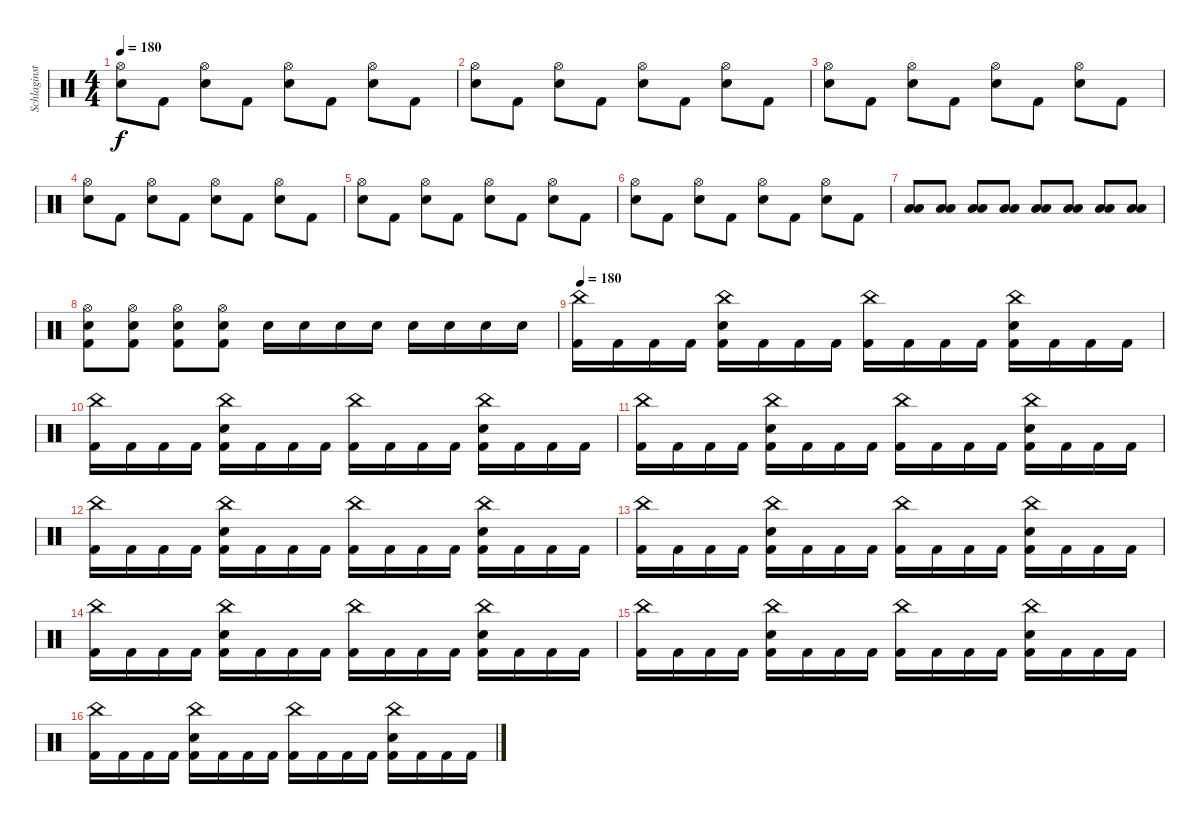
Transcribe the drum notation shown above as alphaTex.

\track ("Schlaginstrumente - Auswahl" "Schlaginst") {instrument percussion}
\staff {score}
\articulation defaults
\ts (4 4)
\tempo 180
\clef neutral
\ks c
("Hi-Hat (open)" "Snare (hit) 2").8{dy f} "Kick (hit) 2".8 ("Hi-Hat (open)" "Snare (hit) 2").8 "Kick (hit) 2".8 ("Hi-Hat (open)" "Snare (hit) 2").8 "Kick (hit) 2".8 ("Hi-Hat (open)" "Snare (hit) 2").8 "Kick (hit) 2".8 |
("Hi-Hat (open)" "Snare (hit) 2").8 "Kick (hit) 2".8 ("Hi-Hat (open)" "Snare (hit) 2").8 "Kick (hit) 2".8 ("Hi-Hat (open)" "Snare (hit) 2").8 "Kick (hit) 2".8 ("Hi-Hat (open)" "Snare (hit) 2").8 "Kick (hit) 2".8 |
("Hi-Hat (open)" "Snare (hit) 2").8 "Kick (hit) 2".8 ("Hi-Hat (open)" "Snare (hit) 2").8 "Kick (hit) 2".8 ("Hi-Hat (open)" "Snare (hit) 2").8 "Kick (hit) 2".8 ("Hi-Hat (open)" "Snare (hit) 2").8 "Kick (hit) 2".8 |
("Hi-Hat (open)" "Snare (hit) 2").8 "Kick (hit) 2".8 ("Hi-Hat (open)" "Snare (hit) 2").8 "Kick (hit) 2".8 ("Hi-Hat (open)" "Snare (hit) 2").8 "Kick (hit) 2".8 ("Hi-Hat (open)" "Snare (hit) 2").8 "Kick (hit) 2".8 |
("Hi-Hat (open)" "Snare (hit) 2").8 "Kick (hit) 2".8 ("Hi-Hat (open)" "Snare (hit) 2").8 "Kick (hit) 2".8 ("Hi-Hat (open)" "Snare (hit) 2").8 "Kick (hit) 2".8 ("Hi-Hat (open)" "Snare (hit) 2").8 "Kick (hit) 2".8 |
("Hi-Hat (open)" "Snare (hit) 2").8 "Kick (hit) 2".8 ("Hi-Hat (open)" "Snare (hit) 2").8 "Kick (hit) 2".8 ("Hi-Hat (open)" "Snare (hit) 2").8 "Kick (hit) 2".8 ("Hi-Hat (open)" "Snare (hit) 2").8 "Kick (hit) 2".8 |
("Low Tom (hit)" "Low Floor Tom (hit)").8 ("Low Tom (hit)" "Low Floor Tom (hit)").8 ("Low Tom (hit)" "Low Floor Tom (hit)").8 ("Low Tom (hit)" "Low Floor Tom (hit)").8 ("Low Tom (hit)" "Low Floor Tom (hit)").8 ("Low Tom (hit)" "Low Floor Tom (hit)").8 ("Low Tom (hit)" "Low Floor Tom (hit)").8 ("Low Tom (hit)" "Low Floor Tom (hit)").8 |
("Hi-Hat (open)" "Snare (hit) 2" "Kick (hit) 2").8 ("Hi-Hat (open)" "Snare (hit) 2" "Kick (hit) 2").8 ("Hi-Hat (open)" "Snare (hit) 2" "Kick (hit) 2").8 ("Hi-Hat (open)" "Snare (hit) 2" "Kick (hit) 2").8 "Snare (hit) 2".16 "Snare (hit) 2".16 "Snare (hit) 2".16 "Snare (hit) 2".16 "Snare (hit) 2".16 "Snare (hit) 2".16 "Snare (hit) 2".16 "Snare (hit) 2".16 |
\tempo 180
("China (hit)" "Kick (hit) 2").16 "Kick (hit) 2".16 "Kick (hit) 2".16 "Kick (hit) 2".16 ("China (hit)" "Snare (hit) 2" "Kick (hit) 2").16 "Kick (hit) 2".16 "Kick (hit) 2".16 "Kick (hit) 2".16 ("China (hit)" "Kick (hit) 2").16 "Kick (hit) 2".16 "Kick (hit) 2".16 "Kick (hit) 2".16 ("China (hit)" "Snare (hit) 2" "Kick (hit) 2").16 "Kick (hit) 2".16 "Kick (hit) 2".16 "Kick (hit) 2".16 |
("China (hit)" "Kick (hit) 2").16 "Kick (hit) 2".16 "Kick (hit) 2".16 "Kick (hit) 2".16 ("China (hit)" "Snare (hit) 2" "Kick (hit) 2").16 "Kick (hit) 2".16 "Kick (hit) 2".16 "Kick (hit) 2".16 ("China (hit)" "Kick (hit) 2").16 "Kick (hit) 2".16 "Kick (hit) 2".16 "Kick (hit) 2".16 ("China (hit)" "Snare (hit) 2" "Kick (hit) 2").16 "Kick (hit) 2".16 "Kick (hit) 2".16 "Kick (hit) 2".16 |
("China (hit)" "Kick (hit) 2").16 "Kick (hit) 2".16 "Kick (hit) 2".16 "Kick (hit) 2".16 ("China (hit)" "Snare (hit) 2" "Kick (hit) 2").16 "Kick (hit) 2".16 "Kick (hit) 2".16 "Kick (hit) 2".16 ("China (hit)" "Kick (hit) 2").16 "Kick (hit) 2".16 "Kick (hit) 2".16 "Kick (hit) 2".16 ("China (hit)" "Snare (hit) 2" "Kick (hit) 2").16 "Kick (hit) 2".16 "Kick (hit) 2".16 "Kick (hit) 2".16 |
("China (hit)" "Kick (hit) 2").16 "Kick (hit) 2".16 "Kick (hit) 2".16 "Kick (hit) 2".16 ("China (hit)" "Snare (hit) 2" "Kick (hit) 2").16 "Kick (hit) 2".16 "Kick (hit) 2".16 "Kick (hit) 2".16 ("China (hit)" "Kick (hit) 2").16 "Kick (hit) 2".16 "Kick (hit) 2".16 "Kick (hit) 2".16 ("China (hit)" "Snare (hit) 2" "Kick (hit) 2").16 "Kick (hit) 2".16 "Kick (hit) 2".16 "Kick (hit) 2".16 |
("China (hit)" "Kick (hit) 2").16 "Kick (hit) 2".16 "Kick (hit) 2".16 "Kick (hit) 2".16 ("China (hit)" "Snare (hit) 2" "Kick (hit) 2").16 "Kick (hit) 2".16 "Kick (hit) 2".16 "Kick (hit) 2".16 ("China (hit)" "Kick (hit) 2").16 "Kick (hit) 2".16 "Kick (hit) 2".16 "Kick (hit) 2".16 ("China (hit)" "Snare (hit) 2" "Kick (hit) 2").16 "Kick (hit) 2".16 "Kick (hit) 2".16 "Kick (hit) 2".16 |
("China (hit)" "Kick (hit) 2").16 "Kick (hit) 2".16 "Kick (hit) 2".16 "Kick (hit) 2".16 ("China (hit)" "Snare (hit) 2" "Kick (hit) 2").16 "Kick (hit) 2".16 "Kick (hit) 2".16 "Kick (hit) 2".16 ("China (hit)" "Kick (hit) 2").16 "Kick (hit) 2".16 "Kick (hit) 2".16 "Kick (hit) 2".16 ("China (hit)" "Snare (hit) 2" "Kick (hit) 2").16 "Kick (hit) 2".16 "Kick (hit) 2".16 "Kick (hit) 2".16 |
("China (hit)" "Kick (hit) 2").16 "Kick (hit) 2".16 "Kick (hit) 2".16 "Kick (hit) 2".16 ("China (hit)" "Snare (hit) 2" "Kick (hit) 2").16 "Kick (hit) 2".16 "Kick (hit) 2".16 "Kick (hit) 2".16 ("China (hit)" "Kick (hit) 2").16 "Kick (hit) 2".16 "Kick (hit) 2".16 "Kick (hit) 2".16 ("China (hit)" "Snare (hit) 2" "Kick (hit) 2").16 "Kick (hit) 2".16 "Kick (hit) 2".16 "Kick (hit) 2".16 |
("China (hit)" "Kick (hit) 2").16 "Kick (hit) 2".16 "Kick (hit) 2".16 "Kick (hit) 2".16 ("China (hit)" "Snare (hit) 2" "Kick (hit) 2").16 "Kick (hit) 2".16 "Kick (hit) 2".16 "Kick (hit) 2".16 ("China (hit)" "Kick (hit) 2").16 "Kick (hit) 2".16 "Kick (hit) 2".16 "Kick (hit) 2".16 ("China (hit)" "Snare (hit) 2" "Kick (hit) 2").16 "Kick (hit) 2".16 "Kick (hit) 2".16 "Kick (hit) 2".16
